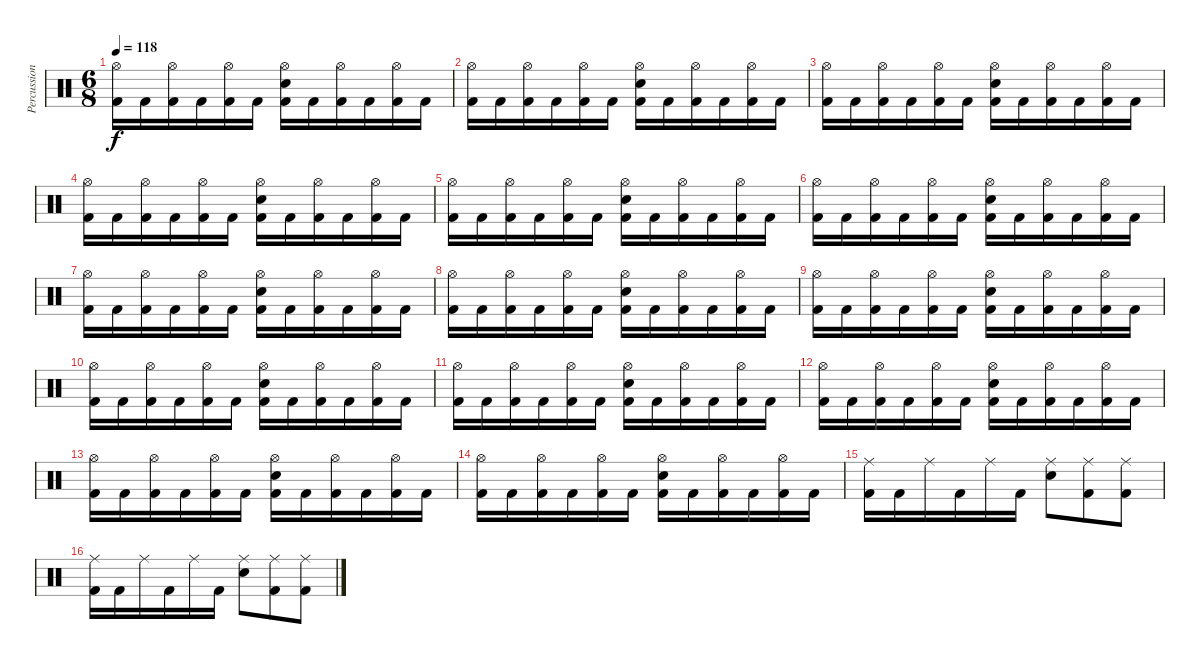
\track ("Percussion" "Percussion") {instrument percussion}
\staff {score}
\articulation defaults
\ts (6 8)
\tempo 118
\clef neutral
\ks c
("Hi-Hat (open)" "Kick (hit) 2").16{dy f} "Kick (hit) 2".16 ("Hi-Hat (open)" "Kick (hit) 2").16 "Kick (hit) 2".16 ("Hi-Hat (open)" "Kick (hit) 2").16 "Kick (hit) 2".16 ("Hi-Hat (open)" "Electric Snare (hit)" "Kick (hit) 2").16 "Kick (hit) 2".16 ("Hi-Hat (open)" "Kick (hit) 2").16 "Kick (hit) 2".16 ("Hi-Hat (open)" "Kick (hit) 2").16 "Kick (hit) 2".16 |
("Hi-Hat (open)" "Kick (hit) 2").16 "Kick (hit) 2".16 ("Hi-Hat (open)" "Kick (hit) 2").16 "Kick (hit) 2".16 ("Hi-Hat (open)" "Kick (hit) 2").16 "Kick (hit) 2".16 ("Hi-Hat (open)" "Electric Snare (hit)" "Kick (hit) 2").16 "Kick (hit) 2".16 ("Hi-Hat (open)" "Kick (hit) 2").16 "Kick (hit) 2".16 ("Hi-Hat (open)" "Kick (hit) 2").16 "Kick (hit) 2".16 |
("Hi-Hat (open)" "Kick (hit) 2").16 "Kick (hit) 2".16 ("Hi-Hat (open)" "Kick (hit) 2").16 "Kick (hit) 2".16 ("Hi-Hat (open)" "Kick (hit) 2").16 "Kick (hit) 2".16 ("Hi-Hat (open)" "Electric Snare (hit)" "Kick (hit) 2").16 "Kick (hit) 2".16 ("Hi-Hat (open)" "Kick (hit) 2").16 "Kick (hit) 2".16 ("Hi-Hat (open)" "Kick (hit) 2").16 "Kick (hit) 2".16 |
("Hi-Hat (open)" "Kick (hit) 2").16 "Kick (hit) 2".16 ("Hi-Hat (open)" "Kick (hit) 2").16 "Kick (hit) 2".16 ("Hi-Hat (open)" "Kick (hit) 2").16 "Kick (hit) 2".16 ("Hi-Hat (open)" "Electric Snare (hit)" "Kick (hit) 2").16 "Kick (hit) 2".16 ("Hi-Hat (open)" "Kick (hit) 2").16 "Kick (hit) 2".16 ("Hi-Hat (open)" "Kick (hit) 2").16 "Kick (hit) 2".16 |
("Hi-Hat (open)" "Kick (hit) 2").16 "Kick (hit) 2".16 ("Hi-Hat (open)" "Kick (hit) 2").16 "Kick (hit) 2".16 ("Hi-Hat (open)" "Kick (hit) 2").16 "Kick (hit) 2".16 ("Hi-Hat (open)" "Electric Snare (hit)" "Kick (hit) 2").16 "Kick (hit) 2".16 ("Hi-Hat (open)" "Kick (hit) 2").16 "Kick (hit) 2".16 ("Hi-Hat (open)" "Kick (hit) 2").16 "Kick (hit) 2".16 |
("Hi-Hat (open)" "Kick (hit) 2").16 "Kick (hit) 2".16 ("Hi-Hat (open)" "Kick (hit) 2").16 "Kick (hit) 2".16 ("Hi-Hat (open)" "Kick (hit) 2").16 "Kick (hit) 2".16 ("Hi-Hat (open)" "Electric Snare (hit)" "Kick (hit) 2").16 "Kick (hit) 2".16 ("Hi-Hat (open)" "Kick (hit) 2").16 "Kick (hit) 2".16 ("Hi-Hat (open)" "Kick (hit) 2").16 "Kick (hit) 2".16 |
("Hi-Hat (open)" "Kick (hit) 2").16 "Kick (hit) 2".16 ("Hi-Hat (open)" "Kick (hit) 2").16 "Kick (hit) 2".16 ("Hi-Hat (open)" "Kick (hit) 2").16 "Kick (hit) 2".16 ("Hi-Hat (open)" "Electric Snare (hit)" "Kick (hit) 2").16 "Kick (hit) 2".16 ("Hi-Hat (open)" "Kick (hit) 2").16 "Kick (hit) 2".16 ("Hi-Hat (open)" "Kick (hit) 2").16 "Kick (hit) 2".16 |
("Hi-Hat (open)" "Kick (hit) 2").16 "Kick (hit) 2".16 ("Hi-Hat (open)" "Kick (hit) 2").16 "Kick (hit) 2".16 ("Hi-Hat (open)" "Kick (hit) 2").16 "Kick (hit) 2".16 ("Hi-Hat (open)" "Electric Snare (hit)" "Kick (hit) 2").16 "Kick (hit) 2".16 ("Hi-Hat (open)" "Kick (hit) 2").16 "Kick (hit) 2".16 ("Hi-Hat (open)" "Kick (hit) 2").16 "Kick (hit) 2".16 |
("Hi-Hat (open)" "Kick (hit) 2").16 "Kick (hit) 2".16 ("Hi-Hat (open)" "Kick (hit) 2").16 "Kick (hit) 2".16 ("Hi-Hat (open)" "Kick (hit) 2").16 "Kick (hit) 2".16 ("Hi-Hat (open)" "Electric Snare (hit)" "Kick (hit) 2").16 "Kick (hit) 2".16 ("Hi-Hat (open)" "Kick (hit) 2").16 "Kick (hit) 2".16 ("Hi-Hat (open)" "Kick (hit) 2").16 "Kick (hit) 2".16 |
("Hi-Hat (open)" "Kick (hit) 2").16 "Kick (hit) 2".16 ("Hi-Hat (open)" "Kick (hit) 2").16 "Kick (hit) 2".16 ("Hi-Hat (open)" "Kick (hit) 2").16 "Kick (hit) 2".16 ("Hi-Hat (open)" "Electric Snare (hit)" "Kick (hit) 2").16 "Kick (hit) 2".16 ("Hi-Hat (open)" "Kick (hit) 2").16 "Kick (hit) 2".16 ("Hi-Hat (open)" "Kick (hit) 2").16 "Kick (hit) 2".16 |
("Hi-Hat (open)" "Kick (hit) 2").16 "Kick (hit) 2".16 ("Hi-Hat (open)" "Kick (hit) 2").16 "Kick (hit) 2".16 ("Hi-Hat (open)" "Kick (hit) 2").16 "Kick (hit) 2".16 ("Hi-Hat (open)" "Electric Snare (hit)" "Kick (hit) 2").16 "Kick (hit) 2".16 ("Hi-Hat (open)" "Kick (hit) 2").16 "Kick (hit) 2".16 ("Hi-Hat (open)" "Kick (hit) 2").16 "Kick (hit) 2".16 |
("Hi-Hat (open)" "Kick (hit) 2").16 "Kick (hit) 2".16 ("Hi-Hat (open)" "Kick (hit) 2").16 "Kick (hit) 2".16 ("Hi-Hat (open)" "Kick (hit) 2").16 "Kick (hit) 2".16 ("Hi-Hat (open)" "Electric Snare (hit)" "Kick (hit) 2").16 "Kick (hit) 2".16 ("Hi-Hat (open)" "Kick (hit) 2").16 "Kick (hit) 2".16 ("Hi-Hat (open)" "Kick (hit) 2").16 "Kick (hit) 2".16 |
("Hi-Hat (open)" "Kick (hit) 2").16 "Kick (hit) 2".16 ("Hi-Hat (open)" "Kick (hit) 2").16 "Kick (hit) 2".16 ("Hi-Hat (open)" "Kick (hit) 2").16 "Kick (hit) 2".16 ("Hi-Hat (open)" "Electric Snare (hit)" "Kick (hit) 2").16 "Kick (hit) 2".16 ("Hi-Hat (open)" "Kick (hit) 2").16 "Kick (hit) 2".16 ("Hi-Hat (open)" "Kick (hit) 2").16 "Kick (hit) 2".16 |
("Hi-Hat (open)" "Kick (hit) 2").16 "Kick (hit) 2".16 ("Hi-Hat (open)" "Kick (hit) 2").16 "Kick (hit) 2".16 ("Hi-Hat (open)" "Kick (hit) 2").16 "Kick (hit) 2".16 ("Hi-Hat (open)" "Electric Snare (hit)" "Kick (hit) 2").16 "Kick (hit) 2".16 ("Hi-Hat (open)" "Kick (hit) 2").16 "Kick (hit) 2".16 ("Hi-Hat (open)" "Kick (hit) 2").16 "Kick (hit) 2".16 |
("Ride (middle)" "Kick (hit) 2").16 "Kick (hit) 2".16 "Ride (middle)".16 "Kick (hit) 2".16 "Ride (middle)".16 "Kick (hit) 2".16 ("Ride (middle)" "Electric Snare (hit)").8 ("Ride (middle)" "Kick (hit) 2").8 ("Ride (middle)" "Kick (hit) 2").8 |
("Ride (middle)" "Kick (hit) 2").16 "Kick (hit) 2".16 "Ride (middle)".16 "Kick (hit) 2".16 "Ride (middle)".16 "Kick (hit) 2".16 ("Ride (middle)" "Electric Snare (hit)").8 ("Ride (middle)" "Kick (hit) 2").8 ("Ride (middle)" "Kick (hit) 2").8
